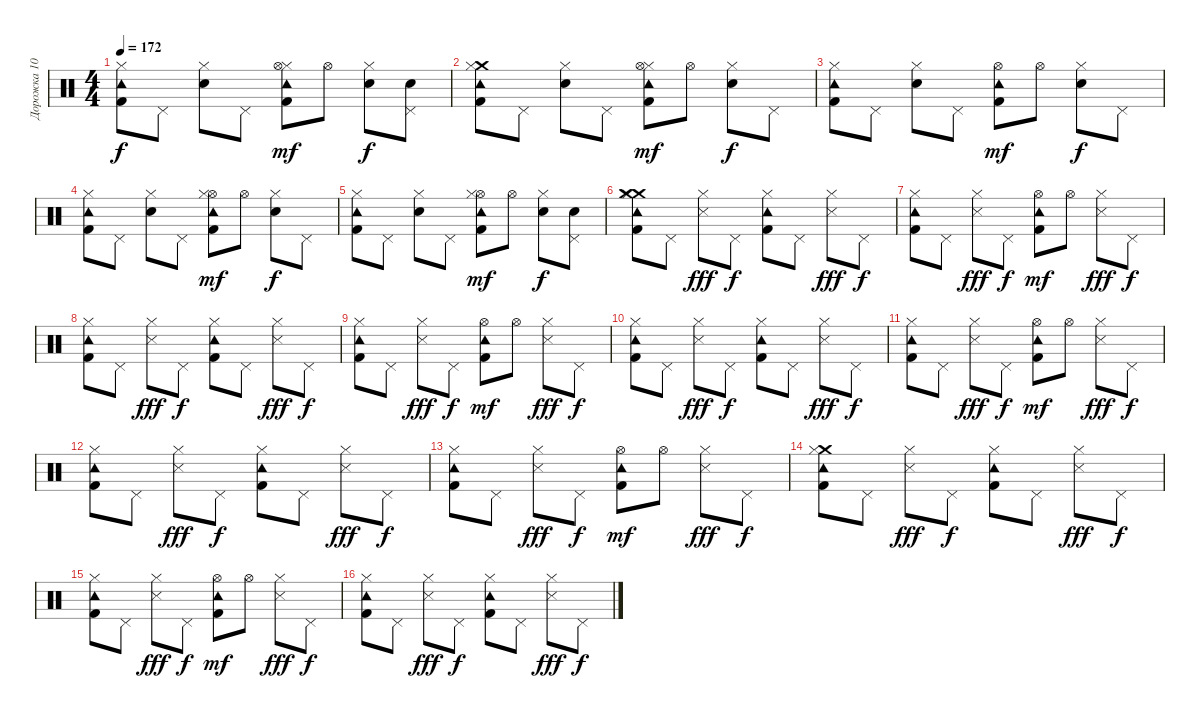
\track ("Дорожка 10" "Дорожка 10") {instrument percussion}
\staff {score}
\articulation defaults
\ts (4 4)
\tempo 172
\clef neutral
\ks c
("Hi-Hat (closed)" "Tambourine (hit)" "Kick (hit) 2").8{dy f} "Pedal Hi-Hat (hit)".8 ("Snare (hit) 2" "Hi-Hat (closed)").8 "Pedal Hi-Hat (hit)".8 ("Tambourine (hit)" "Hi-Hat (closed)" "Hi-Hat (open)" "Kick (hit) 2").8{dy mf} "Hi-Hat (open)".8 ("Snare (hit) 2" "Hi-Hat (closed)").8{dy f} ("Snare (hit) 2" "Pedal Hi-Hat (hit)").8 |
("Crash medium (hit)" "Tambourine (hit)" "Hi-Hat (closed)" "Kick (hit) 2").8 "Pedal Hi-Hat (hit)".8 ("Hi-Hat (closed)" "Snare (hit) 2").8 "Pedal Hi-Hat (hit)".8 ("Hi-Hat (closed)" "Kick (hit) 2" "Tambourine (hit)" "Hi-Hat (open)").8{dy mf} "Hi-Hat (open)".8 ("Hi-Hat (closed)" "Snare (hit) 2").8{dy f} "Pedal Hi-Hat (hit)".8 |
("Tambourine (hit)" "Kick (hit) 2" "Hi-Hat (closed)").8 "Pedal Hi-Hat (hit)".8 ("Snare (hit) 2" "Hi-Hat (closed)").8 "Pedal Hi-Hat (hit)".8 ("Hi-Hat (open)" "Kick (hit) 2" "Tambourine (hit)").8{dy mf} "Hi-Hat (open)".8 ("Snare (hit) 2" "Hi-Hat (closed)").8{dy f} "Pedal Hi-Hat (hit)".8 |
("Tambourine (hit)" "Hi-Hat (closed)" "Kick (hit) 2").8 "Pedal Hi-Hat (hit)".8 ("Snare (hit) 2" "Hi-Hat (closed)").8 "Pedal Hi-Hat (hit)".8 ("Hi-Hat (open)" "Tambourine (hit)" "Kick (hit) 2" "Hi-Hat (closed)").8{dy mf} "Hi-Hat (open)".8 ("Snare (hit) 2" "Hi-Hat (closed)").8{dy f} "Pedal Hi-Hat (hit)".8 |
("Kick (hit) 2" "Hi-Hat (closed)" "Tambourine (hit)").8 "Pedal Hi-Hat (hit)".8 ("Hi-Hat (closed)" "Snare (hit) 2").8 "Pedal Hi-Hat (hit)".8 ("Kick (hit) 2" "Hi-Hat (open)" "Hi-Hat (closed)" "Tambourine (hit)").8{dy mf} "Hi-Hat (open)".8 ("Snare (hit) 2" "Hi-Hat (closed)").8{dy f} ("Snare (hit) 2" "Pedal Hi-Hat (hit)").8 |
("Crash medium (hit)" "Kick (hit) 2" "Hi-Hat (closed)" "Tambourine (hit)" "Crash medium (hit)").8 "Pedal Hi-Hat (hit)".8 ("Hi-Hat (closed)" "Snare (side stick) 3").8{dy fff} "Pedal Hi-Hat (hit)".8{dy f} ("Kick (hit) 2" "Hi-Hat (closed)" "Tambourine (hit)").8 "Pedal Hi-Hat (hit)".8 ("Snare (side stick) 3" "Hi-Hat (closed)").8{dy fff} "Pedal Hi-Hat (hit)".8{dy f} |
("Kick (hit) 2" "Hi-Hat (closed)" "Tambourine (hit)").8 "Pedal Hi-Hat (hit)".8 ("Snare (side stick) 3" "Hi-Hat (closed)").8{dy fff} "Pedal Hi-Hat (hit)".8{dy f} ("Tambourine (hit)" "Hi-Hat (open)" "Kick (hit) 2").8{dy mf} "Hi-Hat (open)".8 ("Snare (side stick) 3" "Hi-Hat (closed)").8{dy fff} "Pedal Hi-Hat (hit)".8{dy f} |
("Kick (hit) 2" "Hi-Hat (closed)" "Tambourine (hit)").8 "Pedal Hi-Hat (hit)".8 ("Hi-Hat (closed)" "Snare (side stick) 3").8{dy fff} "Pedal Hi-Hat (hit)".8{dy f} ("Hi-Hat (closed)" "Tambourine (hit)" "Kick (hit) 2").8 "Pedal Hi-Hat (hit)".8 ("Snare (side stick) 3" "Hi-Hat (closed)").8{dy fff} "Pedal Hi-Hat (hit)".8{dy f} |
("Hi-Hat (closed)" "Kick (hit) 2" "Tambourine (hit)").8 "Pedal Hi-Hat (hit)".8 ("Hi-Hat (closed)" "Snare (side stick) 3").8{dy fff} "Pedal Hi-Hat (hit)".8{dy f} ("Hi-Hat (open)" "Kick (hit) 2" "Tambourine (hit)").8{dy mf} "Hi-Hat (open)".8 ("Snare (side stick) 3" "Hi-Hat (closed)").8{dy fff} "Pedal Hi-Hat (hit)".8{dy f} |
("Tambourine (hit)" "Hi-Hat (closed)" "Kick (hit) 2").8 "Pedal Hi-Hat (hit)".8 ("Snare (side stick) 3" "Hi-Hat (closed)").8{dy fff} "Pedal Hi-Hat (hit)".8{dy f} ("Hi-Hat (closed)" "Kick (hit) 2" "Tambourine (hit)").8 "Pedal Hi-Hat (hit)".8 ("Hi-Hat (closed)" "Snare (side stick) 3").8{dy fff} "Pedal Hi-Hat (hit)".8{dy f} |
("Hi-Hat (closed)" "Tambourine (hit)" "Kick (hit) 2").8 "Pedal Hi-Hat (hit)".8 ("Snare (side stick) 3" "Hi-Hat (closed)").8{dy fff} "Pedal Hi-Hat (hit)".8{dy f} ("Tambourine (hit)" "Hi-Hat (open)" "Kick (hit) 2").8{dy mf} "Hi-Hat (open)".8 ("Hi-Hat (closed)" "Snare (side stick) 3").8{dy fff} "Pedal Hi-Hat (hit)".8{dy f} |
("Hi-Hat (closed)" "Kick (hit) 2" "Tambourine (hit)").8 "Pedal Hi-Hat (hit)".8 ("Snare (side stick) 3" "Hi-Hat (closed)").8{dy fff} "Pedal Hi-Hat (hit)".8{dy f} ("Kick (hit) 2" "Tambourine (hit)" "Hi-Hat (closed)").8 "Pedal Hi-Hat (hit)".8 ("Hi-Hat (closed)" "Snare (side stick) 3").8{dy fff} "Pedal Hi-Hat (hit)".8{dy f} |
("Kick (hit) 2" "Hi-Hat (closed)" "Tambourine (hit)").8 "Pedal Hi-Hat (hit)".8 ("Snare (side stick) 3" "Hi-Hat (closed)").8{dy fff} "Pedal Hi-Hat (hit)".8{dy f} ("Kick (hit) 2" "Tambourine (hit)" "Hi-Hat (open)").8{dy mf} "Hi-Hat (open)".8 ("Snare (side stick) 3" "Hi-Hat (closed)").8{dy fff} "Pedal Hi-Hat (hit)".8{dy f} |
("Crash medium (hit)" "Tambourine (hit)" "Hi-Hat (closed)" "Kick (hit) 2").8 "Pedal Hi-Hat (hit)".8 ("Hi-Hat (closed)" "Snare (side stick) 3").8{dy fff} "Pedal Hi-Hat (hit)".8{dy f} ("Hi-Hat (closed)" "Kick (hit) 2" "Tambourine (hit)").8 "Pedal Hi-Hat (hit)".8 ("Snare (side stick) 3" "Hi-Hat (closed)").8{dy fff} "Pedal Hi-Hat (hit)".8{dy f} |
("Tambourine (hit)" "Kick (hit) 2" "Hi-Hat (closed)").8 "Pedal Hi-Hat (hit)".8 ("Hi-Hat (closed)" "Snare (side stick) 3").8{dy fff} "Pedal Hi-Hat (hit)".8{dy f} ("Tambourine (hit)" "Hi-Hat (open)" "Kick (hit) 2").8{dy mf} "Hi-Hat (open)".8 ("Snare (side stick) 3" "Hi-Hat (closed)").8{dy fff} "Pedal Hi-Hat (hit)".8{dy f} |
("Tambourine (hit)" "Hi-Hat (closed)" "Kick (hit) 2").8 "Pedal Hi-Hat (hit)".8 ("Hi-Hat (closed)" "Snare (side stick) 3").8{dy fff} "Pedal Hi-Hat (hit)".8{dy f} ("Tambourine (hit)" "Hi-Hat (closed)" "Kick (hit) 2").8 "Pedal Hi-Hat (hit)".8 ("Hi-Hat (closed)" "Snare (side stick) 3").8{dy fff} "Pedal Hi-Hat (hit)".8{dy f}
